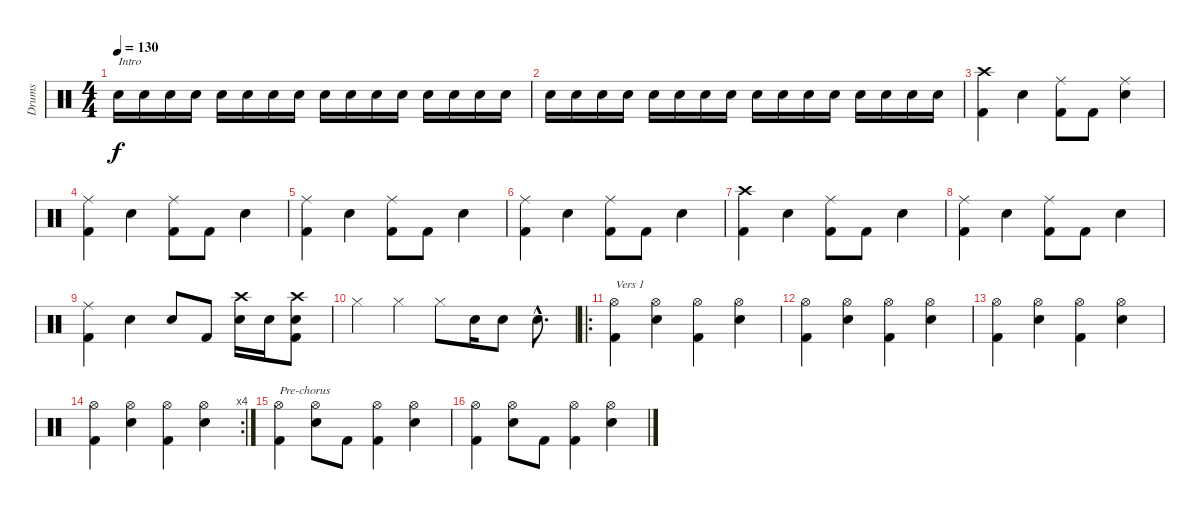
\track ("Drums" "Drums") {instrument percussion}
\staff {score}
\articulation defaults
\ts (4 4)
\tempo 130
\clef neutral
\ks c "Snare (hit) 2".16{txt "Intro" dy f} "Snare (hit) 2".16 "Snare (hit) 2".16 "Snare (hit) 2".16 "Snare (hit) 2".16 "Snare (hit) 2".16 "Snare (hit) 2".16 "Snare (hit) 2".16 "Snare (hit) 2".16 "Snare (hit) 2".16 "Snare (hit) 2".16 "Snare (hit) 2".16 "Snare (hit) 2".16 "Snare (hit) 2".16 "Snare (hit) 2".16 "Snare (hit) 2".16
|
"Snare (hit) 2".16 "Snare (hit) 2".16 "Snare (hit) 2".16 "Snare (hit) 2".16 "Snare (hit) 2".16 "Snare (hit) 2".16 "Snare (hit) 2".16 "Snare (hit) 2".16 "Snare (hit) 2".16 "Snare (hit) 2".16 "Snare (hit) 2".16 "Snare (hit) 2".16 "Snare (hit) 2".16 "Snare (hit) 2".16 "Snare (hit) 2".16 "Snare (hit) 2".16 |
("Crash high (hit)" "Kick (hit) 2").4 "Snare (hit) 2".4 ("Ride (middle)" "Kick (hit) 2").8 "Kick (hit) 2".8 ("Ride (middle)" "Snare (hit) 2").4 |
("Ride (middle)" "Kick (hit) 2").4 "Snare (hit) 2".4 ("Ride (middle)" "Kick (hit) 2").8 "Kick (hit) 2".8 "Snare (hit) 2".4 |
("Ride (middle)" "Kick (hit) 2").4 "Snare (hit) 2".4 ("Ride (middle)" "Kick (hit) 2").8 "Kick (hit) 2".8 "Snare (hit) 2".4 |
("Ride (middle)" "Kick (hit) 2").4 "Snare (hit) 2".4 ("Ride (middle)" "Kick (hit) 2").8 "Kick (hit) 2".8 "Snare (hit) 2".4 |
("Crash high (hit)" "Kick (hit) 2").4 "Snare (hit) 2".4 ("Ride (middle)" "Kick (hit) 2").8 "Kick (hit) 2".8 "Snare (hit) 2".4 |
("Ride (middle)" "Kick (hit) 2").4 "Snare (hit) 2".4 ("Ride (middle)" "Kick (hit) 2").8 "Kick (hit) 2".8 "Snare (hit) 2".4 |
("Ride (middle)" "Kick (hit) 2").4 "Snare (hit) 2".4 "Snare (hit) 2".8 "Kick (hit) 2".8 ("Crash high (hit)" "Snare (hit) 2").16 "Snare (hit) 2".16 ("Crash high (hit)" "Snare (hit) 2" "Kick (hit) 2").8 |
"Hi-Hat (closed)".4 "Hi-Hat (closed)".4 "Hi-Hat (closed)".8 "Snare (hit) 2".16 "Snare (hit) 2".8 "Snare (hit) 2"{hac}.8{d} |
\ro
("Hi-Hat (open)" "Kick (hit) 2").4{txt "Vers 1"} ("Hi-Hat (open)" "Snare (hit) 2").4 ("Hi-Hat (open)" "Kick (hit) 2").4 ("Hi-Hat (open)" "Snare (hit) 2").4 |
("Hi-Hat (open)" "Kick (hit) 2").4 ("Hi-Hat (open)" "Snare (hit) 2").4 ("Hi-Hat (open)" "Kick (hit) 2").4 ("Hi-Hat (open)" "Snare (hit) 2").4 |
("Hi-Hat (open)" "Kick (hit) 2").4 ("Hi-Hat (open)" "Snare (hit) 2").4 ("Hi-Hat (open)" "Kick (hit) 2").4 ("Hi-Hat (open)" "Snare (hit) 2").4 |
\rc 4
("Hi-Hat (open)" "Kick (hit) 2").4 ("Hi-Hat (open)" "Snare (hit) 2").4 ("Hi-Hat (open)" "Kick (hit) 2").4 ("Hi-Hat (open)" "Snare (hit) 2").4 |
("Hi-Hat (open)" "Kick (hit) 2").4{txt "Pre-chorus"} ("Hi-Hat (open)" "Snare (hit) 2").8 "Kick (hit) 2".8 ("Hi-Hat (open)" "Kick (hit) 2").4 ("Hi-Hat (open)" "Snare (hit) 2").4 |
("Hi-Hat (open)" "Kick (hit) 2").4 ("Hi-Hat (open)" "Snare (hit) 2").8 "Kick (hit) 2".8 ("Hi-Hat (open)" "Kick (hit) 2").4 ("Hi-Hat (open)" "Snare (hit) 2").4
